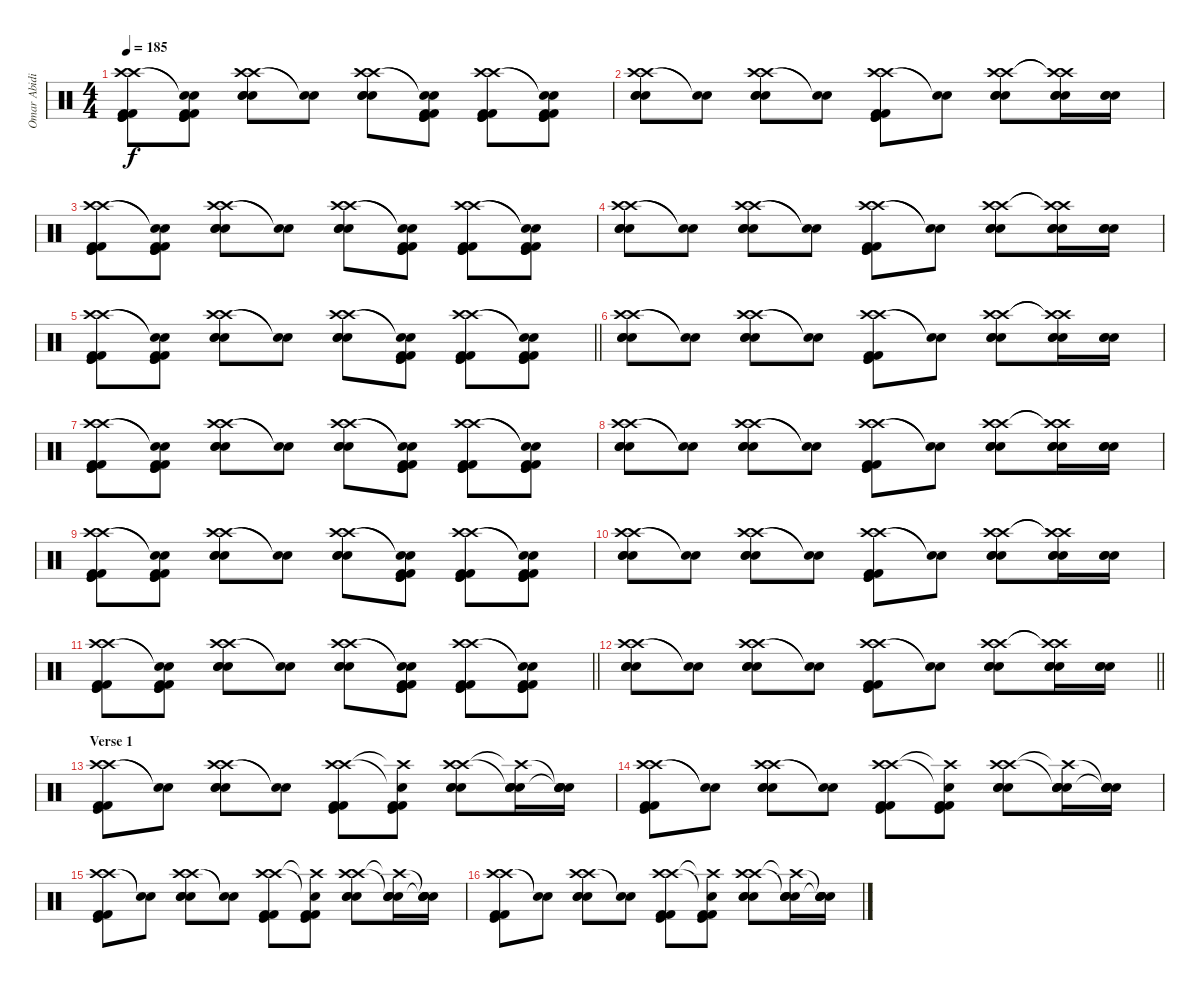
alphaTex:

\track ("Omar Abidi" "Omar Abidi") {instrument percussion}
\staff {score}
\articulation defaults
\ts (4 4)
\tempo 185
\clef neutral
\ks c
("Crash high (hit)" "Crash high (hit)" "Kick (hit) 2" "Kick (hit) 2" "Kick (hit)" "Kick (hit)").8{dy f volume 10} ("Snare (hit)"{t} "Snare (hit)"{t} "Kick (hit) 2" "Kick (hit) 2" "Kick (hit)" "Kick (hit)").8 ("Crash high (hit)" "Crash high (hit)" "Snare (hit) 2" "Electric Snare (hit)" "Electric Snare (hit)").8 ("Snare (hit)"{t} "Snare (hit)"{t}).8 ("Crash high (hit)" "Crash high (hit)" "Snare (hit) 2" "Electric Snare (hit)" "Electric Snare (hit)").8 ("Snare (hit)"{t} "Snare (hit)"{t} "Kick (hit) 2" "Kick (hit) 2" "Kick (hit)" "Kick (hit)").8 ("Crash high (hit)" "Crash high (hit)" "Kick (hit) 2" "Kick (hit) 2" "Kick (hit)" "Kick (hit)").8 ("Snare (hit)"{t} "Snare (hit)"{t} "Kick (hit) 2" "Kick (hit) 2" "Kick (hit)" "Kick (hit)").8 |
("Crash high (hit)" "Crash high (hit)" "Snare (hit) 2" "Electric Snare (hit)" "Electric Snare (hit)").8 ("Snare (hit)"{t} "Snare (hit)"{t}).8 ("Crash high (hit)" "Crash high (hit)" "Snare (hit) 2" "Electric Snare (hit)" "Electric Snare (hit)").8 ("Snare (hit)"{t} "Snare (hit)"{t}).8 ("Crash high (hit)" "Crash high (hit)" "Kick (hit) 2" "Kick (hit) 2" "Kick (hit)" "Kick (hit)").8 ("Snare (hit)"{t} "Snare (hit)"{t}).8 ("Crash high (hit)" "Crash high (hit)" "Snare (hit) 2" "Electric Snare (hit)" "Electric Snare (hit)").8 ("Crash high (hit)"{t} "Crash high (hit)"{t} "Snare (hit) 2" "Electric Snare (hit)" "Electric Snare (hit)").16 ("Snare (hit) 2" "Electric Snare (hit)" "Electric Snare (hit)").16 |
("Crash high (hit)" "Crash high (hit)" "Kick (hit) 2" "Kick (hit) 2" "Kick (hit)" "Kick (hit)").8{volume 10} ("Snare (hit)"{t} "Snare (hit)"{t} "Kick (hit) 2" "Kick (hit) 2" "Kick (hit)" "Kick (hit)").8 ("Crash high (hit)" "Crash high (hit)" "Snare (hit) 2" "Electric Snare (hit)" "Electric Snare (hit)").8 ("Snare (hit)"{t} "Snare (hit)"{t}).8 ("Crash high (hit)" "Crash high (hit)" "Snare (hit) 2" "Electric Snare (hit)" "Electric Snare (hit)").8 ("Snare (hit)"{t} "Snare (hit)"{t} "Kick (hit) 2" "Kick (hit) 2" "Kick (hit)" "Kick (hit)").8 ("Crash high (hit)" "Crash high (hit)" "Kick (hit) 2" "Kick (hit) 2" "Kick (hit)" "Kick (hit)").8 ("Snare (hit)"{t} "Snare (hit)"{t} "Kick (hit) 2" "Kick (hit) 2" "Kick (hit)" "Kick (hit)").8 |
("Crash high (hit)" "Crash high (hit)" "Snare (hit) 2" "Electric Snare (hit)" "Electric Snare (hit)").8 ("Snare (hit)"{t} "Snare (hit)"{t}).8 ("Crash high (hit)" "Crash high (hit)" "Snare (hit) 2" "Electric Snare (hit)" "Electric Snare (hit)").8 ("Snare (hit)"{t} "Snare (hit)"{t}).8 ("Crash high (hit)" "Crash high (hit)" "Kick (hit) 2" "Kick (hit) 2" "Kick (hit)" "Kick (hit)").8 ("Snare (hit)"{t} "Snare (hit)"{t}).8 ("Crash high (hit)" "Crash high (hit)" "Snare (hit) 2" "Electric Snare (hit)" "Electric Snare (hit)").8 ("Crash high (hit)"{t} "Crash high (hit)"{t} "Snare (hit) 2" "Electric Snare (hit)" "Electric Snare (hit)").16 ("Snare (hit) 2" "Electric Snare (hit)" "Electric Snare (hit)").16 |
\barLineRight lightlight
("Crash high (hit)" "Crash high (hit)" "Kick (hit) 2" "Kick (hit) 2" "Kick (hit)" "Kick (hit)").8{volume 10} ("Snare (hit)"{t} "Snare (hit)"{t} "Kick (hit) 2" "Kick (hit) 2" "Kick (hit)" "Kick (hit)").8 ("Crash high (hit)" "Crash high (hit)" "Snare (hit) 2" "Electric Snare (hit)" "Electric Snare (hit)").8 ("Snare (hit)"{t} "Snare (hit)"{t}).8 ("Crash high (hit)" "Crash high (hit)" "Snare (hit) 2" "Electric Snare (hit)" "Electric Snare (hit)").8 ("Snare (hit)"{t} "Snare (hit)"{t} "Kick (hit) 2" "Kick (hit) 2" "Kick (hit)" "Kick (hit)").8 ("Crash high (hit)" "Crash high (hit)" "Kick (hit) 2" "Kick (hit) 2" "Kick (hit)" "Kick (hit)").8 ("Snare (hit)"{t} "Snare (hit)"{t} "Kick (hit) 2" "Kick (hit) 2" "Kick (hit)" "Kick (hit)").8 |
("Crash high (hit)" "Crash high (hit)" "Snare (hit) 2" "Electric Snare (hit)" "Electric Snare (hit)").8 ("Snare (hit)"{t} "Snare (hit)"{t}).8 ("Crash high (hit)" "Crash high (hit)" "Snare (hit) 2" "Electric Snare (hit)" "Electric Snare (hit)").8 ("Snare (hit)"{t} "Snare (hit)"{t}).8 ("Crash high (hit)" "Crash high (hit)" "Kick (hit) 2" "Kick (hit) 2" "Kick (hit)" "Kick (hit)").8 ("Snare (hit)"{t} "Snare (hit)"{t}).8 ("Crash high (hit)" "Crash high (hit)" "Snare (hit) 2" "Electric Snare (hit)" "Electric Snare (hit)").8 ("Crash high (hit)"{t} "Crash high (hit)"{t} "Snare (hit) 2" "Electric Snare (hit)" "Electric Snare (hit)").16 ("Snare (hit) 2" "Electric Snare (hit)" "Electric Snare (hit)").16 |
("Crash high (hit)" "Crash high (hit)" "Kick (hit) 2" "Kick (hit) 2" "Kick (hit)" "Kick (hit)").8{volume 10} ("Snare (hit)"{t} "Snare (hit)"{t} "Kick (hit) 2" "Kick (hit) 2" "Kick (hit)" "Kick (hit)").8 ("Crash high (hit)" "Crash high (hit)" "Snare (hit) 2" "Electric Snare (hit)" "Electric Snare (hit)").8 ("Snare (hit)"{t} "Snare (hit)"{t}).8 ("Crash high (hit)" "Crash high (hit)" "Snare (hit) 2" "Electric Snare (hit)" "Electric Snare (hit)").8 ("Snare (hit)"{t} "Snare (hit)"{t} "Kick (hit) 2" "Kick (hit) 2" "Kick (hit)" "Kick (hit)").8 ("Crash high (hit)" "Crash high (hit)" "Kick (hit) 2" "Kick (hit) 2" "Kick (hit)" "Kick (hit)").8 ("Snare (hit)"{t} "Snare (hit)"{t} "Kick (hit) 2" "Kick (hit) 2" "Kick (hit)" "Kick (hit)").8 |
("Crash high (hit)" "Crash high (hit)" "Snare (hit) 2" "Electric Snare (hit)" "Electric Snare (hit)").8 ("Snare (hit)"{t} "Snare (hit)"{t}).8 ("Crash high (hit)" "Crash high (hit)" "Snare (hit) 2" "Electric Snare (hit)" "Electric Snare (hit)").8 ("Snare (hit)"{t} "Snare (hit)"{t}).8 ("Crash high (hit)" "Crash high (hit)" "Kick (hit) 2" "Kick (hit) 2" "Kick (hit)" "Kick (hit)").8 ("Snare (hit)"{t} "Snare (hit)"{t}).8 ("Crash high (hit)" "Crash high (hit)" "Snare (hit) 2" "Electric Snare (hit)" "Electric Snare (hit)").8 ("Crash high (hit)"{t} "Crash high (hit)"{t} "Snare (hit) 2" "Electric Snare (hit)" "Electric Snare (hit)").16 ("Snare (hit) 2" "Electric Snare (hit)" "Electric Snare (hit)").16 |
("Crash high (hit)" "Crash high (hit)" "Kick (hit) 2" "Kick (hit) 2" "Kick (hit)" "Kick (hit)").8{volume 10} ("Snare (hit)"{t} "Snare (hit)"{t} "Kick (hit) 2" "Kick (hit) 2" "Kick (hit)" "Kick (hit)").8 ("Crash high (hit)" "Crash high (hit)" "Snare (hit) 2" "Electric Snare (hit)" "Electric Snare (hit)").8 ("Snare (hit)"{t} "Snare (hit)"{t}).8 ("Crash high (hit)" "Crash high (hit)" "Snare (hit) 2" "Electric Snare (hit)" "Electric Snare (hit)").8 ("Snare (hit)"{t} "Snare (hit)"{t} "Kick (hit) 2" "Kick (hit) 2" "Kick (hit)" "Kick (hit)").8 ("Crash high (hit)" "Crash high (hit)" "Kick (hit) 2" "Kick (hit) 2" "Kick (hit)" "Kick (hit)").8 ("Snare (hit)"{t} "Snare (hit)"{t} "Kick (hit) 2" "Kick (hit) 2" "Kick (hit)" "Kick (hit)").8 |
("Crash high (hit)" "Crash high (hit)" "Snare (hit) 2" "Electric Snare (hit)" "Electric Snare (hit)").8 ("Snare (hit)"{t} "Snare (hit)"{t}).8 ("Crash high (hit)" "Crash high (hit)" "Snare (hit) 2" "Electric Snare (hit)" "Electric Snare (hit)").8 ("Snare (hit)"{t} "Snare (hit)"{t}).8 ("Crash high (hit)" "Crash high (hit)" "Kick (hit) 2" "Kick (hit) 2" "Kick (hit)" "Kick (hit)").8 ("Snare (hit)"{t} "Snare (hit)"{t}).8 ("Crash high (hit)" "Crash high (hit)" "Snare (hit) 2" "Electric Snare (hit)" "Electric Snare (hit)").8 ("Crash high (hit)"{t} "Crash high (hit)"{t} "Snare (hit) 2" "Electric Snare (hit)" "Electric Snare (hit)").16 ("Snare (hit) 2" "Electric Snare (hit)" "Electric Snare (hit)").16 |
\barLineRight lightlight
("Crash high (hit)" "Crash high (hit)" "Kick (hit) 2" "Kick (hit) 2" "Kick (hit)" "Kick (hit)").8{volume 10} ("Snare (hit)"{t} "Snare (hit)"{t} "Kick (hit) 2" "Kick (hit) 2" "Kick (hit)" "Kick (hit)").8 ("Crash high (hit)" "Crash high (hit)" "Snare (hit) 2" "Electric Snare (hit)" "Electric Snare (hit)").8 ("Snare (hit)"{t} "Snare (hit)"{t}).8 ("Crash high (hit)" "Crash high (hit)" "Snare (hit) 2" "Electric Snare (hit)" "Electric Snare (hit)").8 ("Snare (hit)"{t} "Snare (hit)"{t} "Kick (hit) 2" "Kick (hit) 2" "Kick (hit)" "Kick (hit)").8 ("Crash high (hit)" "Crash high (hit)" "Kick (hit) 2" "Kick (hit) 2" "Kick (hit)" "Kick (hit)").8 ("Snare (hit)"{t} "Snare (hit)"{t} "Kick (hit) 2" "Kick (hit) 2" "Kick (hit)" "Kick (hit)").8 |
\section ("" "")
\barLineRight lightlight
("Crash high (hit)" "Crash high (hit)" "Snare (hit) 2" "Electric Snare (hit)" "Electric Snare (hit)").8 ("Snare (hit)"{t} "Snare (hit)"{t}).8 ("Crash high (hit)" "Crash high (hit)" "Snare (hit) 2" "Electric Snare (hit)" "Electric Snare (hit)").8 ("Snare (hit)"{t} "Snare (hit)"{t}).8 ("Crash high (hit)" "Crash high (hit)" "Kick (hit) 2" "Kick (hit) 2" "Kick (hit)" "Kick (hit)").8 ("Snare (hit)"{t} "Snare (hit)"{t}).8 ("Crash high (hit)" "Crash high (hit)" "Snare (hit) 2" "Electric Snare (hit)" "Electric Snare (hit)").8 ("Crash high (hit)"{t} "Crash high (hit)"{t} "Snare (hit) 2" "Electric Snare (hit)" "Electric Snare (hit)").16 ("Snare (hit) 2" "Electric Snare (hit)" "Electric Snare (hit)").16 |
\section ("" "Verse 1")
("Crash high (hit)" "Crash high (hit)" "Kick (hit) 2" "Kick (hit) 2" "Kick (hit)").8 ("Snare (hit)"{t} "Snare (hit)"{t}).8 ("Crash high (hit)" "Crash high (hit)" "Snare (hit) 2" "Electric Snare (hit)" "Snare (hit) 2").8 ("Snare (hit)"{t} "Snare (hit)"{t}).8 ("Crash high (hit)" "Crash high (hit)" "Kick (hit) 2" "Kick (hit) 2" "Kick (hit)").8 ("Snare (hit)"{t} "Crash high (hit)"{t} "Kick (hit) 2" "Kick (hit) 2" "Kick (hit)").8 ("Crash high (hit)" "Crash high (hit)" "Snare (hit) 2" "Electric Snare (hit)" "Snare (hit) 2").8 ("Crash high (hit)"{t} "Snare (hit)"{t} "Snare (hit) 2" "Snare (hit) 2" "Electric Snare (hit)").16 ("Snare (hit)"{t} "Snare (hit)"{t} "Snare (hit) 2" "Snare (hit) 2" "Electric Snare (hit)").16 |
("Crash high (hit)" "Crash high (hit)" "Kick (hit) 2" "Kick (hit) 2" "Kick (hit)").8 ("Snare (hit)"{t} "Snare (hit)"{t}).8 ("Crash high (hit)" "Crash high (hit)" "Snare (hit) 2" "Electric Snare (hit)" "Snare (hit) 2").8 ("Snare (hit)"{t} "Snare (hit)"{t}).8 ("Crash high (hit)" "Crash high (hit)" "Kick (hit) 2" "Kick (hit) 2" "Kick (hit)").8 ("Snare (hit)"{t} "Crash high (hit)"{t} "Kick (hit) 2" "Kick (hit) 2" "Kick (hit)").8 ("Crash high (hit)" "Crash high (hit)" "Snare (hit) 2" "Electric Snare (hit)" "Snare (hit) 2").8 ("Crash high (hit)"{t} "Snare (hit)"{t} "Snare (hit) 2" "Snare (hit) 2" "Electric Snare (hit)").16 ("Snare (hit)"{t} "Snare (hit)"{t} "Snare (hit) 2" "Snare (hit) 2" "Electric Snare (hit)").16 |
("Crash high (hit)" "Crash high (hit)" "Kick (hit) 2" "Kick (hit) 2" "Kick (hit)").8 ("Snare (hit)"{t} "Snare (hit)"{t}).8 ("Crash high (hit)" "Crash high (hit)" "Snare (hit) 2" "Electric Snare (hit)" "Snare (hit) 2").8 ("Snare (hit)"{t} "Snare (hit)"{t}).8 ("Crash high (hit)" "Crash high (hit)" "Kick (hit) 2" "Kick (hit) 2" "Kick (hit)").8 ("Snare (hit)"{t} "Crash high (hit)"{t} "Kick (hit) 2" "Kick (hit) 2" "Kick (hit)").8 ("Crash high (hit)" "Crash high (hit)" "Snare (hit) 2" "Electric Snare (hit)" "Snare (hit) 2").8 ("Crash high (hit)"{t} "Snare (hit)"{t} "Snare (hit) 2" "Snare (hit) 2" "Electric Snare (hit)").16 ("Snare (hit)"{t} "Snare (hit)"{t} "Snare (hit) 2" "Snare (hit) 2" "Electric Snare (hit)").16 |
("Crash high (hit)" "Crash high (hit)" "Kick (hit) 2" "Kick (hit) 2" "Kick (hit)").8 ("Snare (hit)"{t} "Snare (hit)"{t}).8 ("Crash high (hit)" "Crash high (hit)" "Snare (hit) 2" "Electric Snare (hit)" "Snare (hit) 2").8 ("Snare (hit)"{t} "Snare (hit)"{t}).8 ("Crash high (hit)" "Crash high (hit)" "Kick (hit) 2" "Kick (hit) 2" "Kick (hit)").8 ("Snare (hit)"{t} "Crash high (hit)"{t} "Kick (hit) 2" "Kick (hit) 2" "Kick (hit)").8 ("Crash high (hit)" "Crash high (hit)" "Snare (hit) 2" "Electric Snare (hit)" "Snare (hit) 2").8 ("Crash high (hit)"{t} "Snare (hit)"{t} "Snare (hit) 2" "Snare (hit) 2" "Electric Snare (hit)").16 ("Snare (hit)"{t} "Snare (hit)"{t} "Snare (hit) 2" "Snare (hit) 2" "Electric Snare (hit)").16
